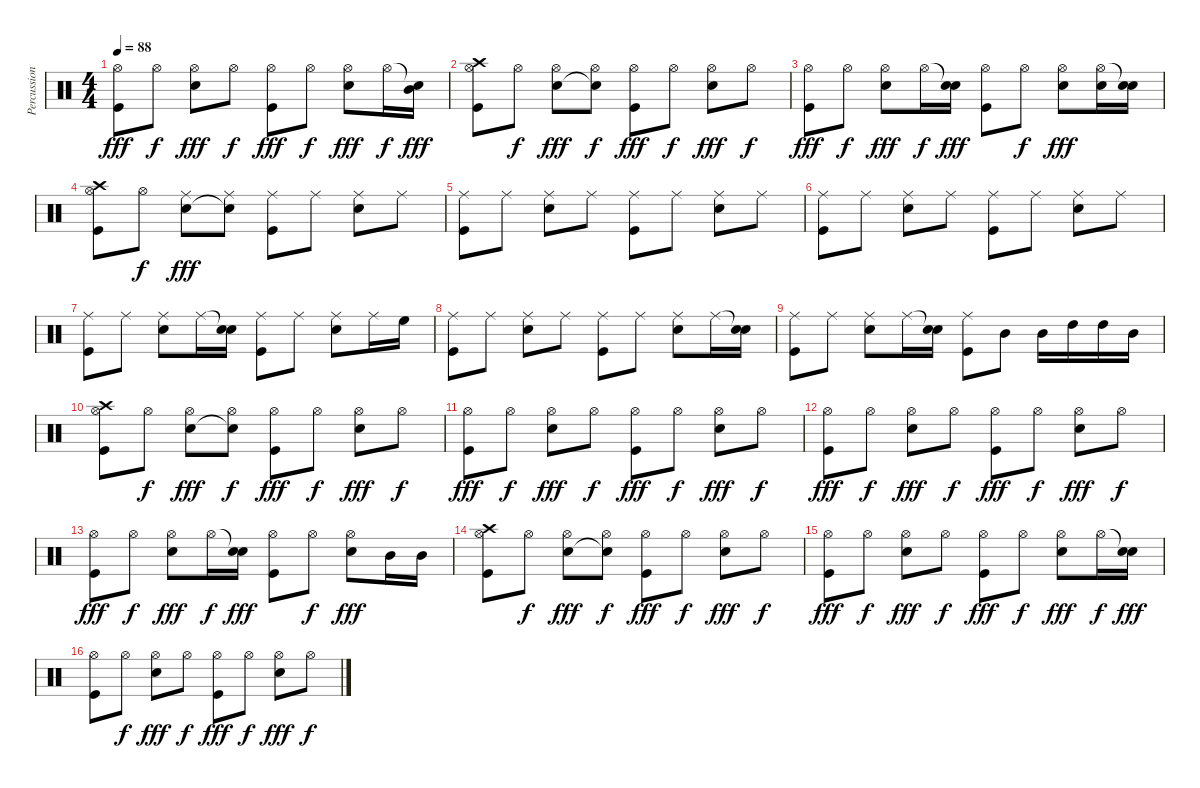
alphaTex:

\track ("Percussions" "Percussion") {instrument percussion}
\staff {score}
\articulation defaults
\ts (4 4)
\tempo 88
\clef neutral
\ks c
("Hi-Hat (open)" "Kick (hit)").8{dy fff} "Hi-Hat (open)".8{dy f} ("Hi-Hat (open)" "Snare (hit) 2").8{dy fff} "Hi-Hat (open)".8{dy f} ("Hi-Hat (open)" "Kick (hit)").8{dy fff} "Hi-Hat (open)".8{dy f} ("Hi-Hat (open)" "Snare (hit) 2").8{dy fff} "Hi-Hat (open)".16{dy f} ("Snare (hit)"{t} "Mid Tom (hit)").16{dy fff} |
("Hi-Hat (open)" "Kick (hit)" "Crash high (hit)").8 "Hi-Hat (open)".8{dy f} ("Hi-Hat (open)" "Snare (hit) 2").8{dy fff} ("Hi-Hat (open)" "Snare (hit)"{t}).8{dy f} ("Hi-Hat (open)" "Kick (hit)").8{dy fff} "Hi-Hat (open)".8{dy f} ("Hi-Hat (open)" "Snare (hit) 2").8{dy fff} "Hi-Hat (open)".8{dy f} |
("Hi-Hat (open)" "Kick (hit)").8{dy fff} "Hi-Hat (open)".8{dy f} ("Hi-Hat (open)" "Snare (hit) 2").8{dy fff} "Hi-Hat (open)".16{dy f} ("Snare (hit)"{t} "Snare (hit) 2").16{dy fff} ("Hi-Hat (open)" "Kick (hit)").8 "Hi-Hat (open)".8{dy f} ("Hi-Hat (open)" "Snare (hit) 2").8{dy fff} ("Hi-Hat (open)" "Snare (hit) 2").16 ("Snare (hit)"{t} "Snare (hit) 2").16 |
("Hi-Hat (open)" "Kick (hit)" "Crash high (hit)").8 "Hi-Hat (open)".8{dy f} ("Ride (middle)" "Snare (hit) 2").8{dy fff} ("Ride (middle)" "Snare (hit)"{t}).8 ("Ride (middle)" "Kick (hit)").8 "Ride (middle)".8 ("Ride (middle)" "Snare (hit) 2").8 "Ride (middle)".8 |
("Ride (middle)" "Kick (hit)").8 "Ride (middle)".8 ("Ride (middle)" "Snare (hit) 2").8 "Ride (middle)".8 ("Ride (middle)" "Kick (hit)").8 "Ride (middle)".8 ("Ride (middle)" "Snare (hit) 2").8 "Ride (middle)".8 |
("Ride (middle)" "Kick (hit)").8 "Ride (middle)".8 ("Ride (middle)" "Snare (hit) 2").8 "Ride (middle)".8 ("Ride (middle)" "Kick (hit)").8 "Ride (middle)".8 ("Ride (middle)" "Snare (hit) 2").8 "Ride (middle)".8 |
("Ride (middle)" "Kick (hit)").8 "Ride (middle)".8 ("Ride (middle)" "Snare (hit) 2").8 "Ride (middle)".16 ("Snare (hit)"{t} "Snare (hit) 2").16 ("Ride (middle)" "Kick (hit)").8 "Ride (middle)".8 ("Ride (middle)" "Snare (hit) 2").8 "Ride (middle)".16 "High Floor Tom (hit)".16 |
("Ride (middle)" "Kick (hit)").8 "Ride (middle)".8 ("Ride (middle)" "Snare (hit) 2").8 "Ride (middle)".8 ("Ride (middle)" "Kick (hit)").8 "Ride (middle)".8 ("Ride (middle)" "Snare (hit) 2").8 "Ride (middle)".16 ("Snare (hit)"{t} "Snare (hit) 2").16 |
("Ride (middle)" "Kick (hit)").8 "Ride (middle)".8 ("Ride (middle)" "Snare (hit) 2").8 "Ride (middle)".16 ("Snare (hit)"{t} "Snare (hit) 2").16 ("Ride (middle)" "Kick (hit)").8 "Mid Tom (hit)".8 "Mid Tom (hit)".16 "High Tom (hit)".16 "High Tom (hit)".16 "Mid Tom (hit)".16 |
("Hi-Hat (open)" "Kick (hit)" "Crash high (hit)").8 "Hi-Hat (open)".8{dy f} ("Hi-Hat (open)" "Snare (hit) 2").8{dy fff} ("Hi-Hat (open)" "Snare (hit)"{t}).8{dy f} ("Hi-Hat (open)" "Kick (hit)").8{dy fff} "Hi-Hat (open)".8{dy f} ("Hi-Hat (open)" "Snare (hit) 2").8{dy fff} "Hi-Hat (open)".8{dy f} |
("Hi-Hat (open)" "Kick (hit)").8{dy fff} "Hi-Hat (open)".8{dy f} ("Hi-Hat (open)" "Snare (hit) 2").8{dy fff} "Hi-Hat (open)".8{dy f} ("Hi-Hat (open)" "Kick (hit)").8{dy fff} "Hi-Hat (open)".8{dy f} ("Hi-Hat (open)" "Snare (hit) 2").8{dy fff} "Hi-Hat (open)".8{dy f} |
("Hi-Hat (open)" "Kick (hit)").8{dy fff} "Hi-Hat (open)".8{dy f} ("Hi-Hat (open)" "Snare (hit) 2").8{dy fff} "Hi-Hat (open)".8{dy f} ("Hi-Hat (open)" "Kick (hit)").8{dy fff} "Hi-Hat (open)".8{dy f} ("Hi-Hat (open)" "Snare (hit) 2").8{dy fff} "Hi-Hat (open)".8{dy f} |
("Hi-Hat (open)" "Kick (hit)").8{dy fff} "Hi-Hat (open)".8{dy f} ("Hi-Hat (open)" "Snare (hit) 2").8{dy fff} "Hi-Hat (open)".16{dy f} ("Snare (hit)"{t} "Snare (hit) 2").16{dy fff} ("Hi-Hat (open)" "Kick (hit)").8 "Hi-Hat (open)".8{dy f} ("Hi-Hat (open)" "Snare (hit) 2").8{dy fff} "Mid Tom (hit)".16 "Mid Tom (hit)".16 |
("Hi-Hat (open)" "Kick (hit)" "Crash high (hit)").8 "Hi-Hat (open)".8{dy f} ("Hi-Hat (open)" "Snare (hit) 2").8{dy fff} ("Hi-Hat (open)" "Snare (hit)"{t}).8{dy f} ("Hi-Hat (open)" "Kick (hit)").8{dy fff} "Hi-Hat (open)".8{dy f} ("Hi-Hat (open)" "Snare (hit) 2").8{dy fff} "Hi-Hat (open)".8{dy f} |
("Hi-Hat (open)" "Kick (hit)").8{dy fff} "Hi-Hat (open)".8{dy f} ("Hi-Hat (open)" "Snare (hit) 2").8{dy fff} "Hi-Hat (open)".8{dy f} ("Hi-Hat (open)" "Kick (hit)").8{dy fff} "Hi-Hat (open)".8{dy f} ("Hi-Hat (open)" "Snare (hit) 2").8{dy fff} "Hi-Hat (open)".16{dy f} ("Snare (hit)"{t} "Snare (hit) 2").16{dy fff} |
("Hi-Hat (open)" "Kick (hit)").8 "Hi-Hat (open)".8{dy f} ("Hi-Hat (open)" "Snare (hit) 2").8{dy fff} "Hi-Hat (open)".8{dy f} ("Hi-Hat (open)" "Kick (hit)").8{dy fff} "Hi-Hat (open)".8{dy f} ("Hi-Hat (open)" "Snare (hit) 2").8{dy fff} "Hi-Hat (open)".8{dy f}
